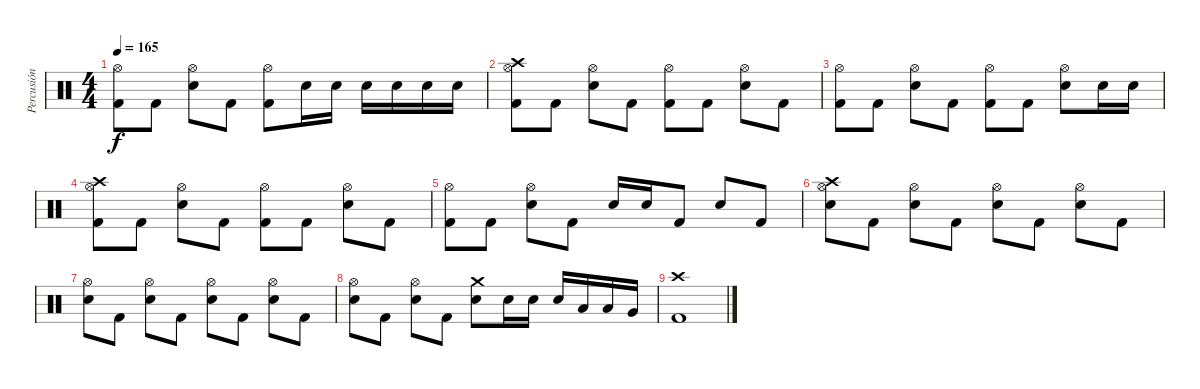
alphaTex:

\track ("Percusión" "Percusión") {instrument percussion}
\staff {score}
\articulation defaults
\ts (4 4)
\tempo 165
\clef neutral
\ks c
("Hi-Hat (open)" "Kick (hit) 2").8{dy f} "Kick (hit) 2".8 ("Hi-Hat (open)" "Snare (hit) 2").8 "Kick (hit) 2".8 ("Hi-Hat (open)" "Kick (hit) 2").8 "Snare (hit) 2".16 "Snare (hit) 2".16 "Snare (hit) 2".16 "Snare (hit) 2".16 "Snare (hit) 2".16 "Snare (hit) 2".16 |
("Crash high (hit)" "Hi-Hat (open)" "Kick (hit) 2").8 "Kick (hit) 2".8 ("Hi-Hat (open)" "Snare (hit) 2").8 "Kick (hit) 2".8 ("Hi-Hat (open)" "Kick (hit) 2").8 "Kick (hit) 2".8 ("Hi-Hat (open)" "Snare (hit) 2").8 "Kick (hit) 2".8 |
("Hi-Hat (open)" "Kick (hit) 2").8 "Kick (hit) 2".8 ("Hi-Hat (open)" "Snare (hit) 2").8 "Kick (hit) 2".8 ("Hi-Hat (open)" "Kick (hit) 2").8 "Kick (hit) 2".8 ("Hi-Hat (open)" "Snare (hit) 2").8 "Snare (hit) 2".16 "Snare (hit) 2".16 |
("Crash high (hit)" "Hi-Hat (open)" "Kick (hit) 2").8 "Kick (hit) 2".8 ("Hi-Hat (open)" "Snare (hit) 2").8 "Kick (hit) 2".8 ("Hi-Hat (open)" "Kick (hit) 2").8 "Kick (hit) 2".8 ("Hi-Hat (open)" "Snare (hit) 2").8 "Kick (hit) 2".8 |
("Hi-Hat (open)" "Kick (hit) 2").8 "Kick (hit) 2".8 ("Hi-Hat (open)" "Snare (hit) 2").8 "Kick (hit) 2".8 "Snare (hit) 2".16 "Snare (hit) 2".16 "Kick (hit) 2".8 "Snare (hit) 2".8 "Kick (hit) 2".8 |
("Crash high (hit)" "Hi-Hat (open)" "Snare (hit) 2").8 "Kick (hit) 2".8 ("Hi-Hat (open)" "Snare (hit) 2").8 "Kick (hit) 2".8 ("Hi-Hat (open)" "Snare (hit) 2").8 "Kick (hit) 2".8 ("Hi-Hat (open)" "Snare (hit) 2").8 "Kick (hit) 2".8 |
("Hi-Hat (open)" "Snare (hit) 2").8 "Kick (hit) 2".8 ("Hi-Hat (open)" "Snare (hit) 2").8 "Kick (hit) 2".8 ("Hi-Hat (open)" "Snare (hit) 2").8 "Kick (hit) 2".8 ("Hi-Hat (open)" "Snare (hit) 2").8 "Kick (hit) 2".8 |
("Hi-Hat (open)" "Snare (hit) 2").8 "Kick (hit) 2".8 ("Hi-Hat (open)" "Snare (hit) 2").8 "Kick (hit) 2".8 ("Crash medium (hit)" "Snare (hit) 2").8 "Snare (hit) 2".16 "Snare (hit) 2".16 "Snare (hit) 2".16 "Low Tom (hit)".16 "Low Tom (hit)".16 "Very Low Tom (hit)".16 |
("Crash high (hit)" "Kick (hit) 2").1
